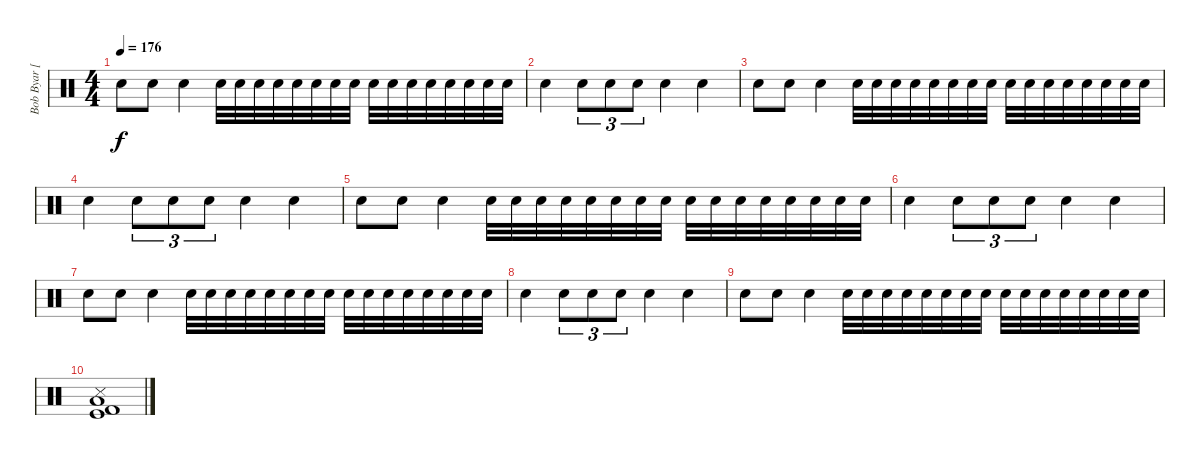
\track ("Bob Byar [Drums]" "Bob Byar [") {instrument percussion}
\staff {score}
\articulation defaults
\ts (4 4)
\tempo 176
\clef neutral
\ks c "Electric Snare (hit)".8{dy f} "Electric Snare (hit)".8 "Electric Snare (hit)".4 "Electric Snare (hit)".32 "Electric Snare (hit)".32 "Electric Snare (hit)".32 "Electric Snare (hit)".32 "Electric Snare (hit)".32 "Electric Snare (hit)".32 "Electric Snare (hit)".32 "Electric Snare (hit)".32 "Electric Snare (hit)".32 "Electric Snare (hit)".32 "Electric Snare (hit)".32 "Electric Snare (hit)".32 "Electric Snare (hit)".32 "Electric Snare (hit)".32 "Electric Snare (hit)".32 "Electric Snare (hit)".32
|
"Electric Snare (hit)".4 "Electric Snare (hit)".8{tu (3 2)} "Electric Snare (hit)".8{tu (3 2)} "Electric Snare (hit)".8{tu (3 2)} "Electric Snare (hit)".4 "Electric Snare (hit)".4 |
"Electric Snare (hit)".8 "Electric Snare (hit)".8 "Electric Snare (hit)".4 "Electric Snare (hit)".32 "Electric Snare (hit)".32 "Electric Snare (hit)".32 "Electric Snare (hit)".32 "Electric Snare (hit)".32 "Electric Snare (hit)".32 "Electric Snare (hit)".32 "Electric Snare (hit)".32 "Electric Snare (hit)".32 "Electric Snare (hit)".32 "Electric Snare (hit)".32 "Electric Snare (hit)".32 "Electric Snare (hit)".32 "Electric Snare (hit)".32 "Electric Snare (hit)".32 "Electric Snare (hit)".32 |
"Electric Snare (hit)".4 "Electric Snare (hit)".8{tu (3 2)} "Electric Snare (hit)".8{tu (3 2)} "Electric Snare (hit)".8{tu (3 2)} "Electric Snare (hit)".4 "Electric Snare (hit)".4 |
"Electric Snare (hit)".8 "Electric Snare (hit)".8 "Electric Snare (hit)".4 "Electric Snare (hit)".32 "Electric Snare (hit)".32 "Electric Snare (hit)".32 "Electric Snare (hit)".32 "Electric Snare (hit)".32 "Electric Snare (hit)".32 "Electric Snare (hit)".32 "Electric Snare (hit)".32 "Electric Snare (hit)".32 "Electric Snare (hit)".32 "Electric Snare (hit)".32 "Electric Snare (hit)".32 "Electric Snare (hit)".32 "Electric Snare (hit)".32 "Electric Snare (hit)".32 "Electric Snare (hit)".32 |
"Electric Snare (hit)".4 "Electric Snare (hit)".8{tu (3 2)} "Electric Snare (hit)".8{tu (3 2)} "Electric Snare (hit)".8{tu (3 2)} "Electric Snare (hit)".4 "Electric Snare (hit)".4 |
"Electric Snare (hit)".8 "Electric Snare (hit)".8 "Electric Snare (hit)".4 "Electric Snare (hit)".32 "Electric Snare (hit)".32 "Electric Snare (hit)".32 "Electric Snare (hit)".32 "Electric Snare (hit)".32 "Electric Snare (hit)".32 "Electric Snare (hit)".32 "Electric Snare (hit)".32 "Electric Snare (hit)".32 "Electric Snare (hit)".32 "Electric Snare (hit)".32 "Electric Snare (hit)".32 "Electric Snare (hit)".32 "Electric Snare (hit)".32 "Electric Snare (hit)".32 "Electric Snare (hit)".32 |
"Electric Snare (hit)".4 "Electric Snare (hit)".8{tu (3 2)} "Electric Snare (hit)".8{tu (3 2)} "Electric Snare (hit)".8{tu (3 2)} "Electric Snare (hit)".4 "Electric Snare (hit)".4 |
"Electric Snare (hit)".8 "Electric Snare (hit)".8 "Electric Snare (hit)".4 "Electric Snare (hit)".32 "Electric Snare (hit)".32 "Electric Snare (hit)".32 "Electric Snare (hit)".32 "Electric Snare (hit)".32 "Electric Snare (hit)".32 "Electric Snare (hit)".32 "Electric Snare (hit)".32 "Electric Snare (hit)".32 "Electric Snare (hit)".32 "Electric Snare (hit)".32 "Electric Snare (hit)".32 "Electric Snare (hit)".32 "Electric Snare (hit)".32 "Electric Snare (hit)".32 "Electric Snare (hit)".32 |
("Kick (hit)" "Snare (side stick) 3" "Kick (hit) 2" "Low Floor Tom (hit)").1
